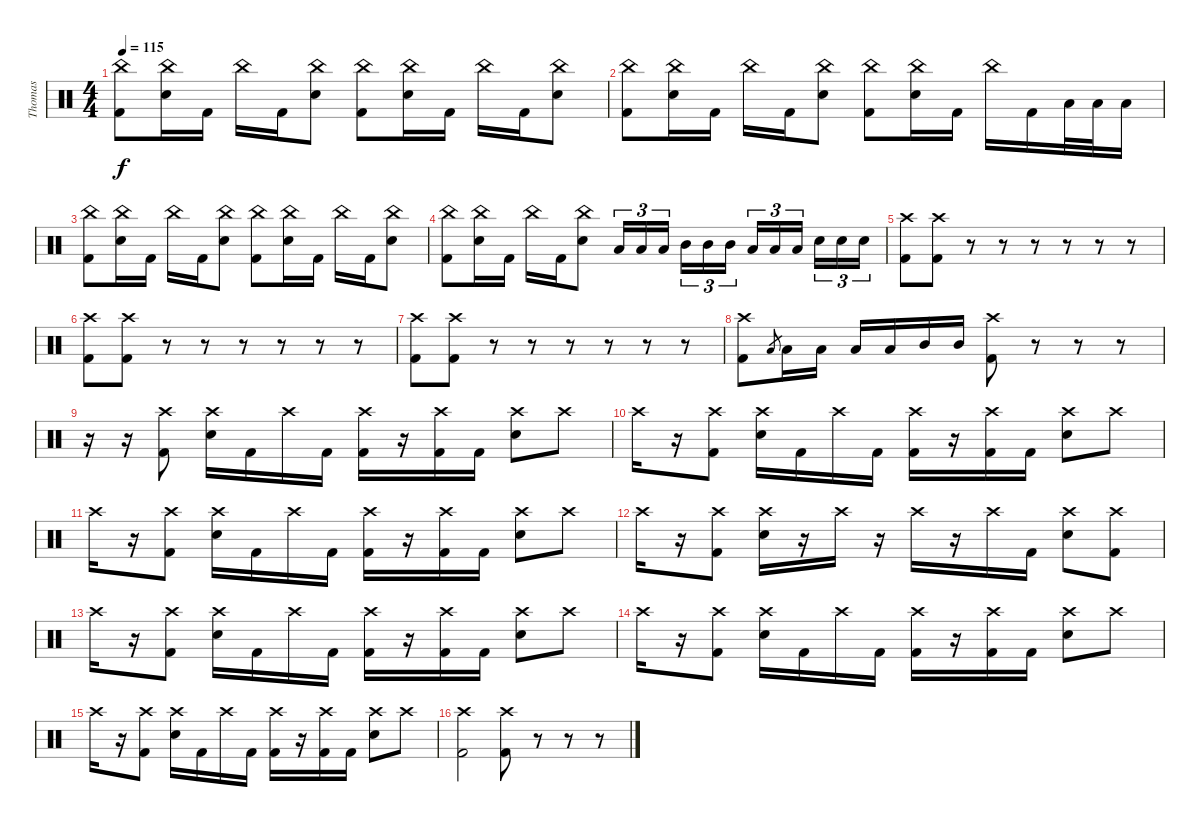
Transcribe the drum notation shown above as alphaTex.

\track ("Thomas" "Thomas") {instrument percussion}
\staff {score}
\articulation defaults
\ts (4 4)
\tempo 115
\clef neutral
\ks c
("China (hit)" "Kick (hit) 2").8{dy f} ("China (hit)" "Electric Snare (hit)").16 "Kick (hit) 2".16 "China (hit)".16 "Kick (hit) 2".16 ("China (hit)" "Electric Snare (hit)").8 ("China (hit)" "Kick (hit) 2").8 ("China (hit)" "Electric Snare (hit)").16 "Kick (hit) 2".16 "China (hit)".16 "Kick (hit) 2".16 ("China (hit)" "Electric Snare (hit)").8 |
("China (hit)" "Kick (hit) 2").8 ("China (hit)" "Electric Snare (hit)").16 "Kick (hit) 2".16 "China (hit)".16 "Kick (hit) 2".16 ("China (hit)" "Electric Snare (hit)").8 ("China (hit)" "Kick (hit) 2").8 ("China (hit)" "Electric Snare (hit)").16 "Kick (hit) 2".16 "China (hit)".16 "Kick (hit) 2".16 "Low Tom (hit)".32 "Low Tom (hit)".32 "Low Tom (hit)".16 |
("China (hit)" "Kick (hit) 2").8 ("China (hit)" "Electric Snare (hit)").16 "Kick (hit) 2".16 "China (hit)".16 "Kick (hit) 2".16 ("China (hit)" "Electric Snare (hit)").8 ("China (hit)" "Kick (hit) 2").8 ("China (hit)" "Electric Snare (hit)").16 "Kick (hit) 2".16 "China (hit)".16 "Kick (hit) 2".16 ("China (hit)" "Electric Snare (hit)").8 |
("China (hit)" "Kick (hit) 2").8 ("China (hit)" "Electric Snare (hit)").16 "Kick (hit) 2".16 "China (hit)".16 "Kick (hit) 2".16 ("China (hit)" "Electric Snare (hit)").8 "Low Tom (hit)".16{tu (3 2)} "Low Tom (hit)".16{tu (3 2)} "Low Tom (hit)".16{tu (3 2)} "Mid Tom (hit)".16{tu (3 2)} "Mid Tom (hit)".16{tu (3 2)} "Mid Tom (hit)".16{tu (3 2)} "Low Tom (hit)".16{tu (3 2)} "Low Tom (hit)".16{tu (3 2)} "Low Tom (hit)".16{tu (3 2)} "Electric Snare (hit)".16{tu (3 2)} "Electric Snare (hit)".16{tu (3 2)} "Electric Snare (hit)".16{tu (3 2)} |
("Crash high (hit)" "Kick (hit) 2").8 ("Crash high (hit)" "Kick (hit) 2").8 r.8 r.8 r.8 r.8 r.8 r.8 |
("Crash high (hit)" "Kick (hit) 2").8 ("Crash high (hit)" "Kick (hit) 2").8 r.8 r.8 r.8 r.8 r.8 r.8 |
("Crash high (hit)" "Kick (hit) 2").8 ("Crash high (hit)" "Kick (hit) 2").8 r.8 r.8 r.8 r.8 r.8 r.8 |
("Crash high (hit)" "Kick (hit) 2").8 "Low Tom (hit)".8{gr} "Low Tom (hit)".16 "Low Tom (hit)".16 "Low Tom (hit)".16 "Low Tom (hit)".16 "Mid Tom (hit)".16 "Mid Tom (hit)".16 ("Crash high (hit)" "Kick (hit) 2").8 r.8 r.8 r.8 |
r.16 r.16 ("Kick (hit) 2" "Crash high (hit)").8 ("Electric Snare (hit)" "Crash high (hit)").16 "Kick (hit) 2".16 "Crash high (hit)".16 "Kick (hit) 2".16 ("Kick (hit) 2" "Crash high (hit)").16 r.16 ("Kick (hit) 2" "Crash high (hit)").16 "Kick (hit) 2".16 ("Electric Snare (hit)" "Crash high (hit)").8 "Crash high (hit)".8 |
"Crash high (hit)".16 r.16 ("Kick (hit) 2" "Crash high (hit)").8 ("Electric Snare (hit)" "Crash high (hit)").16 "Kick (hit) 2".16 "Crash high (hit)".16 "Kick (hit) 2".16 ("Kick (hit) 2" "Crash high (hit)").16 r.16 ("Kick (hit) 2" "Crash high (hit)").16 "Kick (hit) 2".16 ("Electric Snare (hit)" "Crash high (hit)").8 "Crash high (hit)".8 |
"Crash high (hit)".16 r.16 ("Kick (hit) 2" "Crash high (hit)").8 ("Electric Snare (hit)" "Crash high (hit)").16 "Kick (hit) 2".16 "Crash high (hit)".16 "Kick (hit) 2".16 ("Kick (hit) 2" "Crash high (hit)").16 r.16 ("Kick (hit) 2" "Crash high (hit)").16 "Kick (hit) 2".16 ("Electric Snare (hit)" "Crash high (hit)").8 "Crash high (hit)".8 |
"Crash high (hit)".16 r.16 ("Kick (hit) 2" "Crash high (hit)").8 ("Electric Snare (hit)" "Crash high (hit)").16 r.16 "Crash high (hit)".16 r.16 "Crash high (hit)".16 r.16 "Crash high (hit)".16 "Kick (hit) 2".16 ("Electric Snare (hit)" "Crash high (hit)").8 ("Kick (hit) 2" "Crash high (hit)").8 |
"Crash high (hit)".16 r.16 ("Kick (hit) 2" "Crash high (hit)").8 ("Electric Snare (hit)" "Crash high (hit)").16 "Kick (hit) 2".16 "Crash high (hit)".16 "Kick (hit) 2".16 ("Kick (hit) 2" "Crash high (hit)").16 r.16 ("Kick (hit) 2" "Crash high (hit)").16 "Kick (hit) 2".16 ("Electric Snare (hit)" "Crash high (hit)").8 "Crash high (hit)".8 |
"Crash high (hit)".16 r.16 ("Kick (hit) 2" "Crash high (hit)").8 ("Electric Snare (hit)" "Crash high (hit)").16 "Kick (hit) 2".16 "Crash high (hit)".16 "Kick (hit) 2".16 ("Kick (hit) 2" "Crash high (hit)").16 r.16 ("Kick (hit) 2" "Crash high (hit)").16 "Kick (hit) 2".16 ("Electric Snare (hit)" "Crash high (hit)").8 "Crash high (hit)".8 |
"Crash high (hit)".16 r.16 ("Kick (hit) 2" "Crash high (hit)").8 ("Electric Snare (hit)" "Crash high (hit)").16 "Kick (hit) 2".16 "Crash high (hit)".16 "Kick (hit) 2".16 ("Kick (hit) 2" "Crash high (hit)").16 r.16 ("Kick (hit) 2" "Crash high (hit)").16 "Kick (hit) 2".16 ("Electric Snare (hit)" "Crash high (hit)").8 "Crash high (hit)".8 |
("Kick (hit) 2" "Crash high (hit)").2 ("Crash high (hit)" "Kick (hit) 2").8 r.8 r.8 r.8
